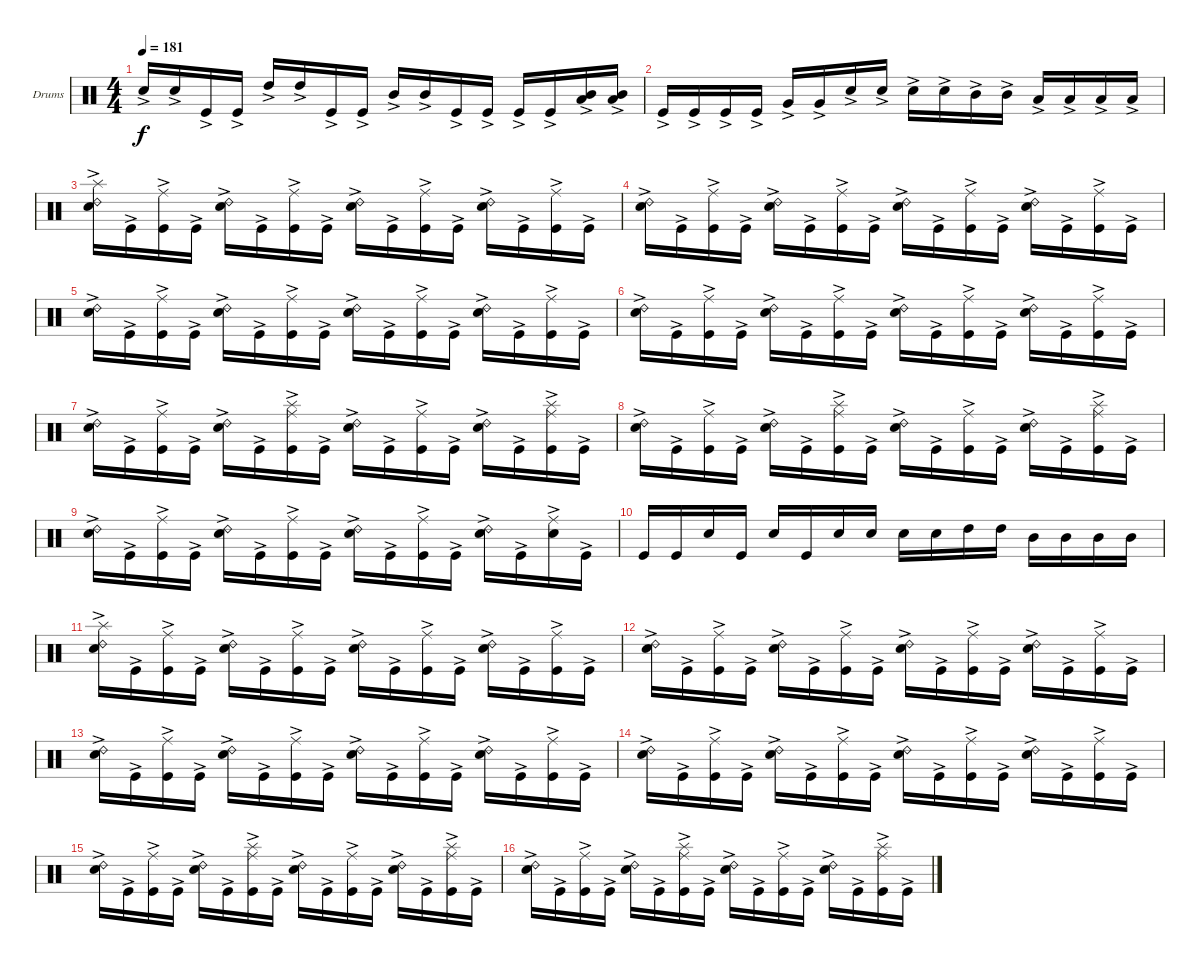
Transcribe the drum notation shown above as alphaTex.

\bracketExtendMode groupsimilarinstruments
\firstSystemTrackNameOrientation horizontal
\otherSystemsTrackNameOrientation horizontal
\track ("Drumkit" "Drums") {instrument percussion}
\staff {score}
\articulation defaults
\ts (4 4)
\tempo 181
\clef neutral
\ks c "Snare (hit) 2"{ac}.16{dy f} "Snare (hit) 2"{ac}.16 "Kick (hit)"{ac}.16 "Kick (hit)"{ac}.16 "High Tom (hit)"{ac}.16 "High Tom (hit)"{ac}.16 "Kick (hit)"{ac}.16 "Kick (hit)"{ac}.16 "Mid Tom (hit)"{ac}.16 "Mid Tom (hit)"{ac}.16 "Kick (hit)"{ac}.16 "Kick (hit)"{ac}.16 "Kick (hit)"{ac}.16 "Kick (hit)"{ac}.16
("Mid Tom (hit)"{ac} "Low Tom (hit)"{ac}).16 ("Mid Tom (hit)"{ac} "Low Tom (hit)"{ac}).16 |
"Kick (hit)"{ac}.16 "Kick (hit)"{ac}.16 "Kick (hit)"{ac}.16 "Kick (hit)"{ac}.16 "Very Low Tom (hit)"{ac}.16 "Very Low Tom (hit)"{ac}.16 "Snare (hit) 2"{ac}.16 "Snare (hit) 2"{ac}.16 "Snare (hit) 2"{ac}.16 "Snare (hit) 2"{ac}.16 "Mid Tom (hit)"{ac}.16 "Mid Tom (hit)"{ac}.16 "Low Tom (hit)"{ac}.16 "Low Tom (hit)"{ac}.16 "Low Tom (hit)"{ac}.16 "Low Tom (hit)"{ac}.16 |
("Snare (hit) 2"{ac} "Ride (bell) 2"{ac} "Splash (hit)"{ac}).16 "Kick (hit)"{ac}.16 ("Kick (hit)"{ac} "Ride (middle)"{ac}).16 "Kick (hit)"{ac}.16 ("Snare (hit) 2"{ac} "Ride (bell) 2"{ac}).16 "Kick (hit)"{ac}.16 ("Kick (hit)"{ac} "Ride (middle)"{ac}).16 "Kick (hit)"{ac}.16 ("Snare (hit) 2"{ac} "Ride (bell) 2"{ac}).16 "Kick (hit)"{ac}.16 ("Kick (hit)"{ac} "Ride (middle)"{ac}).16 "Kick (hit)"{ac}.16 ("Snare (hit) 2"{ac} "Ride (bell) 2"{ac}).16 "Kick (hit)"{ac}.16 ("Kick (hit)"{ac} "Ride (middle)"{ac}).16 "Kick (hit)"{ac}.16 |
("Snare (hit) 2"{ac} "Ride (bell) 2"{ac}).16 "Kick (hit)"{ac}.16 ("Kick (hit)"{ac} "Ride (middle)"{ac}).16 "Kick (hit)"{ac}.16 ("Snare (hit) 2"{ac} "Ride (bell) 2"{ac}).16 "Kick (hit)"{ac}.16 ("Kick (hit)"{ac} "Ride (middle)"{ac}).16 "Kick (hit)"{ac}.16 ("Snare (hit) 2"{ac} "Ride (bell) 2"{ac}).16 "Kick (hit)"{ac}.16 ("Kick (hit)"{ac} "Ride (middle)"{ac}).16 "Kick (hit)"{ac}.16 ("Snare (hit) 2"{ac} "Ride (bell) 2"{ac}).16 "Kick (hit)"{ac}.16 ("Kick (hit)"{ac} "Ride (middle)"{ac}).16 "Kick (hit)"{ac}.16 |
("Snare (hit) 2"{ac} "Ride (bell) 2"{ac}).16 "Kick (hit)"{ac}.16 ("Kick (hit)"{ac} "Ride (middle)"{ac}).16 "Kick (hit)"{ac}.16 ("Snare (hit) 2"{ac} "Ride (bell) 2"{ac}).16 "Kick (hit)"{ac}.16 ("Kick (hit)"{ac} "Ride (middle)"{ac}).16 "Kick (hit)"{ac}.16 ("Snare (hit) 2"{ac} "Ride (bell) 2"{ac}).16 "Kick (hit)"{ac}.16 ("Kick (hit)"{ac} "Ride (middle)"{ac}).16 "Kick (hit)"{ac}.16 ("Snare (hit) 2"{ac} "Ride (bell) 2"{ac}).16 "Kick (hit)"{ac}.16 ("Kick (hit)"{ac} "Ride (middle)"{ac}).16 "Kick (hit)"{ac}.16 |
("Snare (hit) 2"{ac} "Ride (bell) 2"{ac}).16 "Kick (hit)"{ac}.16 ("Kick (hit)"{ac} "Ride (middle)"{ac}).16 "Kick (hit)"{ac}.16 ("Snare (hit) 2"{ac} "Ride (bell) 2"{ac}).16 "Kick (hit)"{ac}.16 ("Kick (hit)"{ac} "Ride (middle)"{ac}).16 "Kick (hit)"{ac}.16 ("Snare (hit) 2"{ac} "Ride (bell) 2"{ac}).16 "Kick (hit)"{ac}.16 ("Kick (hit)"{ac} "Ride (middle)"{ac}).16 "Kick (hit)"{ac}.16 ("Snare (hit) 2"{ac} "Ride (bell) 2"{ac}).16 "Kick (hit)"{ac}.16 ("Kick (hit)"{ac} "Ride (middle)"{ac}).16 "Kick (hit)"{ac}.16 |
("Snare (hit) 2"{ac} "Ride (bell) 2"{ac}).16 "Kick (hit)"{ac}.16 ("Kick (hit)"{ac} "Ride (middle)"{ac}).16 "Kick (hit)"{ac}.16 ("Snare (hit) 2"{ac} "Ride (bell) 2"{ac}).16 "Kick (hit)"{ac}.16 ("Kick (hit)"{ac} "Ride (middle)"{ac} "Splash (hit)").16 "Kick (hit)"{ac}.16 ("Snare (hit) 2"{ac} "Ride (bell) 2"{ac}).16 "Kick (hit)"{ac}.16 ("Kick (hit)"{ac} "Ride (middle)"{ac}).16 "Kick (hit)"{ac}.16 ("Snare (hit) 2"{ac} "Ride (bell) 2"{ac}).16 "Kick (hit)"{ac}.16 ("Kick (hit)"{ac} "Ride (middle)"{ac} "Splash (hit)").16 "Kick (hit)"{ac}.16 |
("Snare (hit) 2"{ac} "Ride (bell) 2"{ac}).16 "Kick (hit)"{ac}.16 ("Kick (hit)"{ac} "Ride (middle)"{ac}).16 "Kick (hit)"{ac}.16 ("Snare (hit) 2"{ac} "Ride (bell) 2"{ac}).16 "Kick (hit)"{ac}.16 ("Kick (hit)"{ac} "Ride (middle)"{ac} "Splash (hit)").16 "Kick (hit)"{ac}.16 ("Snare (hit) 2"{ac} "Ride (bell) 2"{ac}).16 "Kick (hit)"{ac}.16 ("Kick (hit)"{ac} "Ride (middle)"{ac}).16 "Kick (hit)"{ac}.16 ("Snare (hit) 2"{ac} "Ride (bell) 2"{ac}).16 "Kick (hit)"{ac}.16 ("Kick (hit)"{ac} "Ride (middle)"{ac} "Splash (hit)").16 "Kick (hit)"{ac}.16 |
("Snare (hit) 2"{ac} "Ride (bell) 2"{ac}).16 "Kick (hit)"{ac}.16 ("Kick (hit)"{ac} "Ride (middle)"{ac}).16 "Kick (hit)"{ac}.16 ("Snare (hit) 2"{ac} "Ride (bell) 2"{ac}).16 "Kick (hit)"{ac}.16 ("Kick (hit)"{ac} "Ride (middle)"{ac}).16 "Kick (hit)"{ac}.16 ("Snare (hit) 2"{ac} "Ride (bell) 2"{ac}).16 "Kick (hit)"{ac}.16 ("Kick (hit)"{ac} "Ride (middle)"{ac}).16 "Kick (hit)"{ac}.16 ("Snare (hit) 2"{ac} "Ride (bell) 2"{ac}).16 "Kick (hit)"{ac}.16 ("Ride (middle)"{ac} "Snare (hit) 2"{ac}).16 "Kick (hit)"{ac}.16 |
"Kick (hit)".16 "Kick (hit)".16 "Snare (hit) 2".16 "Kick (hit)".16 "Snare (hit) 2".16 "Kick (hit)".16 "Snare (hit) 2".16 "Snare (hit) 2".16 "Snare (hit) 2".16 "Snare (hit) 2".16 "High Tom (hit)".16 "High Tom (hit)".16 "Mid Tom (hit)".16 "Mid Tom (hit)".16 "Mid Tom (hit)".16 "Mid Tom (hit)".16 |
("Snare (hit) 2"{ac} "Ride (bell) 2"{ac} "Splash (hit)"{ac}).16 "Kick (hit)"{ac}.16 ("Kick (hit)"{ac} "Ride (middle)"{ac}).16 "Kick (hit)"{ac}.16 ("Snare (hit) 2"{ac} "Ride (bell) 2"{ac}).16 "Kick (hit)"{ac}.16 ("Kick (hit)"{ac} "Ride (middle)"{ac}).16 "Kick (hit)"{ac}.16 ("Snare (hit) 2"{ac} "Ride (bell) 2"{ac}).16 "Kick (hit)"{ac}.16 ("Kick (hit)"{ac} "Ride (middle)"{ac}).16 "Kick (hit)"{ac}.16 ("Snare (hit) 2"{ac} "Ride (bell) 2"{ac}).16 "Kick (hit)"{ac}.16 ("Kick (hit)"{ac} "Ride (middle)"{ac}).16 "Kick (hit)"{ac}.16 |
("Snare (hit) 2"{ac} "Ride (bell) 2"{ac}).16 "Kick (hit)"{ac}.16 ("Kick (hit)"{ac} "Ride (middle)"{ac}).16 "Kick (hit)"{ac}.16 ("Snare (hit) 2"{ac} "Ride (bell) 2"{ac}).16 "Kick (hit)"{ac}.16 ("Kick (hit)"{ac} "Ride (middle)"{ac}).16 "Kick (hit)"{ac}.16 ("Snare (hit) 2"{ac} "Ride (bell) 2"{ac}).16 "Kick (hit)"{ac}.16 ("Kick (hit)"{ac} "Ride (middle)"{ac}).16 "Kick (hit)"{ac}.16 ("Snare (hit) 2"{ac} "Ride (bell) 2"{ac}).16 "Kick (hit)"{ac}.16 ("Kick (hit)"{ac} "Ride (middle)"{ac}).16 "Kick (hit)"{ac}.16 |
("Snare (hit) 2"{ac} "Ride (bell) 2"{ac}).16 "Kick (hit)"{ac}.16 ("Kick (hit)"{ac} "Ride (middle)"{ac}).16 "Kick (hit)"{ac}.16 ("Snare (hit) 2"{ac} "Ride (bell) 2"{ac}).16 "Kick (hit)"{ac}.16 ("Kick (hit)"{ac} "Ride (middle)"{ac}).16 "Kick (hit)"{ac}.16 ("Snare (hit) 2"{ac} "Ride (bell) 2"{ac}).16 "Kick (hit)"{ac}.16 ("Kick (hit)"{ac} "Ride (middle)"{ac}).16 "Kick (hit)"{ac}.16 ("Snare (hit) 2"{ac} "Ride (bell) 2"{ac}).16 "Kick (hit)"{ac}.16 ("Kick (hit)"{ac} "Ride (middle)"{ac}).16 "Kick (hit)"{ac}.16 |
("Snare (hit) 2"{ac} "Ride (bell) 2"{ac}).16 "Kick (hit)"{ac}.16 ("Kick (hit)"{ac} "Ride (middle)"{ac}).16 "Kick (hit)"{ac}.16 ("Snare (hit) 2"{ac} "Ride (bell) 2"{ac}).16 "Kick (hit)"{ac}.16 ("Kick (hit)"{ac} "Ride (middle)"{ac}).16 "Kick (hit)"{ac}.16 ("Snare (hit) 2"{ac} "Ride (bell) 2"{ac}).16 "Kick (hit)"{ac}.16 ("Kick (hit)"{ac} "Ride (middle)"{ac}).16 "Kick (hit)"{ac}.16 ("Snare (hit) 2"{ac} "Ride (bell) 2"{ac}).16 "Kick (hit)"{ac}.16 ("Kick (hit)"{ac} "Ride (middle)"{ac}).16 "Kick (hit)"{ac}.16 |
("Snare (hit) 2"{ac} "Ride (bell) 2"{ac}).16 "Kick (hit)"{ac}.16 ("Kick (hit)"{ac} "Ride (middle)"{ac}).16 "Kick (hit)"{ac}.16 ("Snare (hit) 2"{ac} "Ride (bell) 2"{ac}).16 "Kick (hit)"{ac}.16 ("Kick (hit)"{ac} "Ride (middle)"{ac} "Splash (hit)").16 "Kick (hit)"{ac}.16 ("Snare (hit) 2"{ac} "Ride (bell) 2"{ac}).16 "Kick (hit)"{ac}.16 ("Kick (hit)"{ac} "Ride (middle)"{ac}).16 "Kick (hit)"{ac}.16 ("Snare (hit) 2"{ac} "Ride (bell) 2"{ac}).16 "Kick (hit)"{ac}.16 ("Kick (hit)"{ac} "Ride (middle)"{ac} "Splash (hit)").16 "Kick (hit)"{ac}.16 |
("Snare (hit) 2"{ac} "Ride (bell) 2"{ac}).16 "Kick (hit)"{ac}.16 ("Kick (hit)"{ac} "Ride (middle)"{ac}).16 "Kick (hit)"{ac}.16 ("Snare (hit) 2"{ac} "Ride (bell) 2"{ac}).16 "Kick (hit)"{ac}.16 ("Kick (hit)"{ac} "Ride (middle)"{ac} "Splash (hit)").16 "Kick (hit)"{ac}.16 ("Snare (hit) 2"{ac} "Ride (bell) 2"{ac}).16 "Kick (hit)"{ac}.16 ("Kick (hit)"{ac} "Ride (middle)"{ac}).16 "Kick (hit)"{ac}.16 ("Snare (hit) 2"{ac} "Ride (bell) 2"{ac}).16 "Kick (hit)"{ac}.16 ("Kick (hit)"{ac} "Ride (middle)"{ac} "Splash (hit)").16 "Kick (hit)"{ac}.16
